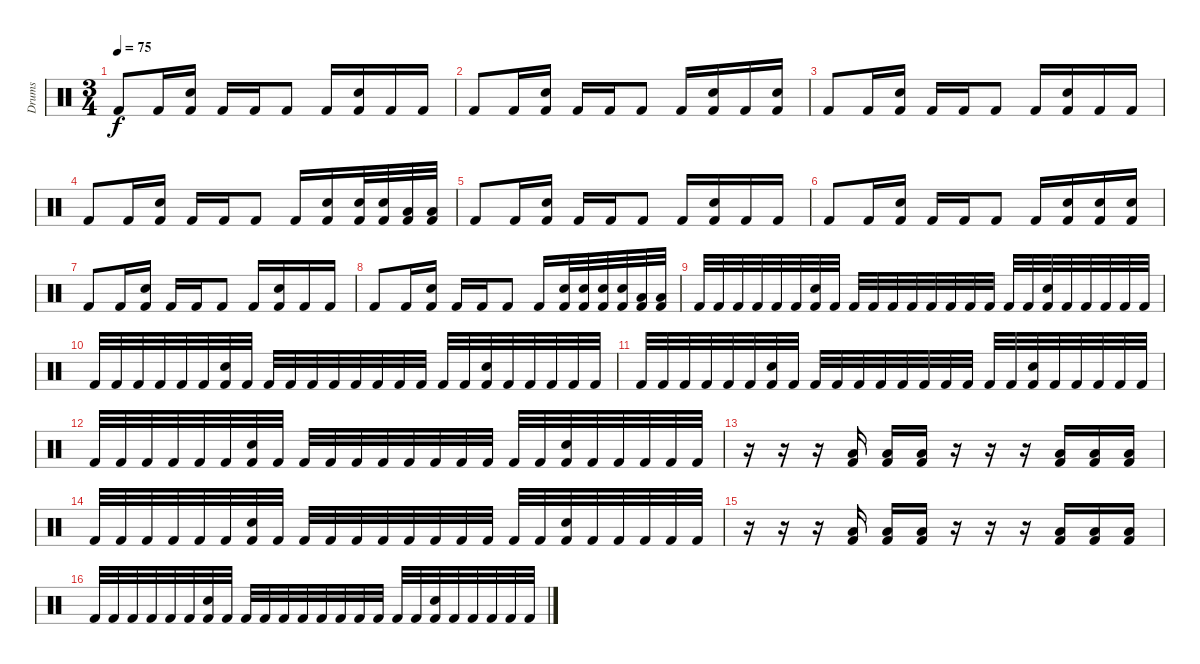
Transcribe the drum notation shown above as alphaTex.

\track ("Drums" "Drums") {instrument percussion}
\staff {score}
\articulation defaults
\ts (3 4)
\tempo 75
\clef neutral
\ks c "Kick (hit) 2".8{dy f} "Kick (hit) 2".16
("Snare (hit) 2" "Kick (hit) 2").16 "Kick (hit) 2".16 "Kick (hit) 2".16 "Kick (hit) 2".8 "Kick (hit) 2".16 ("Snare (hit) 2" "Kick (hit) 2").16 "Kick (hit) 2".16 "Kick (hit) 2".16 |
"Kick (hit) 2".8 "Kick (hit) 2".16 ("Snare (hit) 2" "Kick (hit) 2").16 "Kick (hit) 2".16 "Kick (hit) 2".16 "Kick (hit) 2".8 "Kick (hit) 2".16 ("Snare (hit) 2" "Kick (hit) 2").16 "Kick (hit) 2".16 ("Snare (hit) 2" "Kick (hit) 2").16 |
"Kick (hit) 2".8 "Kick (hit) 2".16 ("Snare (hit) 2" "Kick (hit) 2").16 "Kick (hit) 2".16 "Kick (hit) 2".16 "Kick (hit) 2".8 "Kick (hit) 2".16 ("Snare (hit) 2" "Kick (hit) 2").16 "Kick (hit) 2".16 "Kick (hit) 2".16 |
"Kick (hit) 2".8 "Kick (hit) 2".16 ("Snare (hit) 2" "Kick (hit) 2").16 "Kick (hit) 2".16 "Kick (hit) 2".16 "Kick (hit) 2".8 "Kick (hit) 2".16 ("Snare (hit) 2" "Kick (hit) 2").16 ("Snare (hit) 2" "Kick (hit) 2").32 ("Snare (hit) 2" "Kick (hit) 2").32 ("Low Tom (hit)" "Kick (hit) 2").32 ("Low Tom (hit)" "Kick (hit) 2").32 |
"Kick (hit) 2".8 "Kick (hit) 2".16 ("Snare (hit) 2" "Kick (hit) 2").16 "Kick (hit) 2".16 "Kick (hit) 2".16 "Kick (hit) 2".8 "Kick (hit) 2".16 ("Snare (hit) 2" "Kick (hit) 2").16 "Kick (hit) 2".16 "Kick (hit) 2".16 |
"Kick (hit) 2".8 "Kick (hit) 2".16 ("Snare (hit) 2" "Kick (hit) 2").16 "Kick (hit) 2".16 "Kick (hit) 2".16 "Kick (hit) 2".8 "Kick (hit) 2".16 ("Snare (hit) 2" "Kick (hit) 2").16 ("Snare (hit) 2" "Kick (hit) 2").16 ("Snare (hit) 2" "Kick (hit) 2").16 |
"Kick (hit) 2".8 "Kick (hit) 2".16 ("Snare (hit) 2" "Kick (hit) 2").16 "Kick (hit) 2".16 "Kick (hit) 2".16 "Kick (hit) 2".8 "Kick (hit) 2".16 ("Snare (hit) 2" "Kick (hit) 2").16 "Kick (hit) 2".16 "Kick (hit) 2".16 |
"Kick (hit) 2".8 "Kick (hit) 2".16 ("Snare (hit) 2" "Kick (hit) 2").16 "Kick (hit) 2".16 "Kick (hit) 2".16 "Kick (hit) 2".8 "Kick (hit) 2".16 ("Snare (hit) 2" "Kick (hit) 2").32 ("Snare (hit) 2" "Kick (hit) 2").32 ("Snare (hit) 2" "Kick (hit) 2").32 ("Snare (hit) 2" "Kick (hit) 2").32 ("Low Tom (hit)" "Kick (hit) 2").32 ("Low Tom (hit)" "Kick (hit) 2").32 |
"Kick (hit) 2".32 "Kick (hit) 2".32 "Kick (hit) 2".32 "Kick (hit) 2".32 "Kick (hit) 2".32 "Kick (hit) 2".32 ("Snare (hit) 2" "Kick (hit) 2").32 "Kick (hit) 2".32 "Kick (hit) 2".32 "Kick (hit) 2".32 "Kick (hit) 2".32 "Kick (hit) 2".32 "Kick (hit) 2".32 "Kick (hit) 2".32 "Kick (hit) 2".32 "Kick (hit) 2".32 "Kick (hit) 2".32 "Kick (hit) 2".32 ("Snare (hit) 2" "Kick (hit) 2").32 "Kick (hit) 2".32 "Kick (hit) 2".32 "Kick (hit) 2".32 "Kick (hit) 2".32 "Kick (hit) 2".32 |
"Kick (hit) 2".32 "Kick (hit) 2".32 "Kick (hit) 2".32 "Kick (hit) 2".32 "Kick (hit) 2".32 "Kick (hit) 2".32 ("Snare (hit) 2" "Kick (hit) 2").32 "Kick (hit) 2".32 "Kick (hit) 2".32 "Kick (hit) 2".32 "Kick (hit) 2".32 "Kick (hit) 2".32 "Kick (hit) 2".32 "Kick (hit) 2".32 "Kick (hit) 2".32 "Kick (hit) 2".32 "Kick (hit) 2".32 "Kick (hit) 2".32 ("Snare (hit) 2" "Kick (hit) 2").32 "Kick (hit) 2".32 "Kick (hit) 2".32 "Kick (hit) 2".32 "Kick (hit) 2".32 "Kick (hit) 2".32 |
"Kick (hit) 2".32 "Kick (hit) 2".32 "Kick (hit) 2".32 "Kick (hit) 2".32 "Kick (hit) 2".32 "Kick (hit) 2".32 ("Snare (hit) 2" "Kick (hit) 2").32 "Kick (hit) 2".32 "Kick (hit) 2".32 "Kick (hit) 2".32 "Kick (hit) 2".32 "Kick (hit) 2".32 "Kick (hit) 2".32 "Kick (hit) 2".32 "Kick (hit) 2".32 "Kick (hit) 2".32 "Kick (hit) 2".32 "Kick (hit) 2".32 ("Snare (hit) 2" "Kick (hit) 2").32 "Kick (hit) 2".32 "Kick (hit) 2".32 "Kick (hit) 2".32 "Kick (hit) 2".32 "Kick (hit) 2".32 |
"Kick (hit) 2".32 "Kick (hit) 2".32 "Kick (hit) 2".32 "Kick (hit) 2".32 "Kick (hit) 2".32 "Kick (hit) 2".32 ("Snare (hit) 2" "Kick (hit) 2").32 "Kick (hit) 2".32 "Kick (hit) 2".32 "Kick (hit) 2".32 "Kick (hit) 2".32 "Kick (hit) 2".32 "Kick (hit) 2".32 "Kick (hit) 2".32 "Kick (hit) 2".32 "Kick (hit) 2".32 "Kick (hit) 2".32 "Kick (hit) 2".32 ("Snare (hit) 2" "Kick (hit) 2").32 "Kick (hit) 2".32 "Kick (hit) 2".32 "Kick (hit) 2".32 "Kick (hit) 2".32 "Kick (hit) 2".32 |
r.16 r.16 r.16 ("Low Floor Tom (hit)" "Kick (hit) 2").16 ("Low Floor Tom (hit)" "Kick (hit) 2").16 ("Low Floor Tom (hit)" "Kick (hit) 2").16 r.16 r.16 r.16 ("Low Floor Tom (hit)" "Kick (hit) 2").16 ("Low Floor Tom (hit)" "Kick (hit) 2").16 ("Low Floor Tom (hit)" "Kick (hit) 2").16 |
"Kick (hit) 2".32 "Kick (hit) 2".32 "Kick (hit) 2".32 "Kick (hit) 2".32 "Kick (hit) 2".32 "Kick (hit) 2".32 ("Snare (hit) 2" "Kick (hit) 2").32 "Kick (hit) 2".32 "Kick (hit) 2".32 "Kick (hit) 2".32 "Kick (hit) 2".32 "Kick (hit) 2".32 "Kick (hit) 2".32 "Kick (hit) 2".32 "Kick (hit) 2".32 "Kick (hit) 2".32 "Kick (hit) 2".32 "Kick (hit) 2".32 ("Snare (hit) 2" "Kick (hit) 2").32 "Kick (hit) 2".32 "Kick (hit) 2".32 "Kick (hit) 2".32 "Kick (hit) 2".32 "Kick (hit) 2".32 |
r.16 r.16 r.16 ("Low Floor Tom (hit)" "Kick (hit) 2").16 ("Low Floor Tom (hit)" "Kick (hit) 2").16 ("Low Floor Tom (hit)" "Kick (hit) 2").16 r.16 r.16 r.16 ("Low Floor Tom (hit)" "Kick (hit) 2").16 ("Low Floor Tom (hit)" "Kick (hit) 2").16 ("Low Floor Tom (hit)" "Kick (hit) 2").16 |
"Kick (hit) 2".32 "Kick (hit) 2".32 "Kick (hit) 2".32 "Kick (hit) 2".32 "Kick (hit) 2".32 "Kick (hit) 2".32 ("Snare (hit) 2" "Kick (hit) 2").32 "Kick (hit) 2".32 "Kick (hit) 2".32 "Kick (hit) 2".32 "Kick (hit) 2".32 "Kick (hit) 2".32 "Kick (hit) 2".32 "Kick (hit) 2".32 "Kick (hit) 2".32 "Kick (hit) 2".32 "Kick (hit) 2".32 "Kick (hit) 2".32 ("Snare (hit) 2" "Kick (hit) 2").32 "Kick (hit) 2".32 "Kick (hit) 2".32 "Kick (hit) 2".32 "Kick (hit) 2".32 "Kick (hit) 2".32
